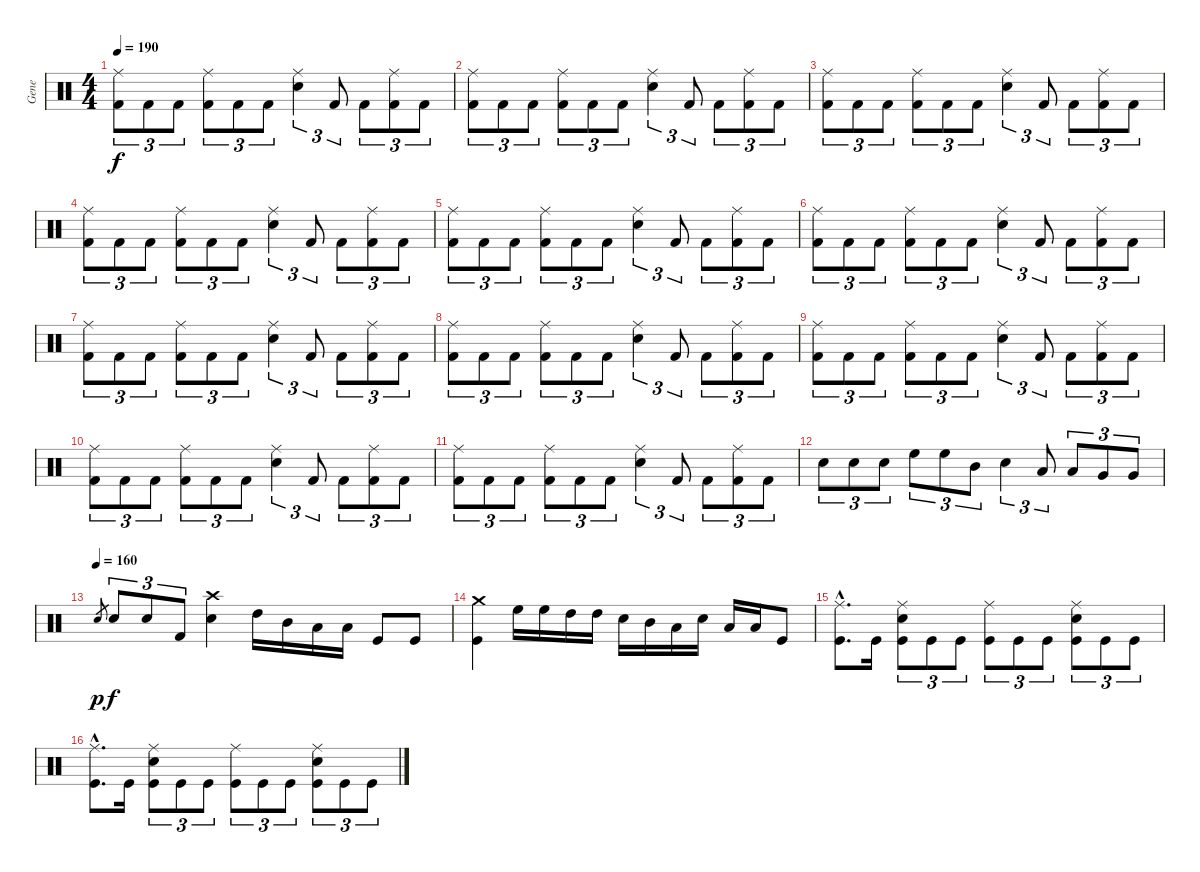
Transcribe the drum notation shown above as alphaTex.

\track ("Gene" "Gene") {instrument percussion}
\staff {score}
\articulation defaults
\ts (4 4)
\tempo 190
\clef neutral
\ks c
("Ride (middle)" "Kick (hit) 2").8{tu (3 2) dy f} "Kick (hit) 2".8{tu (3 2)} "Kick (hit) 2".8{tu (3 2)} ("Ride (middle)" "Kick (hit) 2").8{tu (3 2)} "Kick (hit) 2".8{tu (3 2)} "Kick (hit) 2".8{tu (3 2)} ("Ride (middle)" "Electric Snare (hit)").4{tu (3 2)} "Kick (hit) 2".8{tu (3 2)} "Kick (hit) 2".8{tu (3 2)} ("Ride (middle)" "Kick (hit) 2").8{tu (3 2)} "Kick (hit) 2".8{tu (3 2)} |
("Ride (middle)" "Kick (hit) 2").8{tu (3 2)} "Kick (hit) 2".8{tu (3 2)} "Kick (hit) 2".8{tu (3 2)} ("Ride (middle)" "Kick (hit) 2").8{tu (3 2)} "Kick (hit) 2".8{tu (3 2)} "Kick (hit) 2".8{tu (3 2)} ("Ride (middle)" "Electric Snare (hit)").4{tu (3 2)} "Kick (hit) 2".8{tu (3 2)} "Kick (hit) 2".8{tu (3 2)} ("Ride (middle)" "Kick (hit) 2").8{tu (3 2)} "Kick (hit) 2".8{tu (3 2)} |
("Ride (middle)" "Kick (hit) 2").8{tu (3 2)} "Kick (hit) 2".8{tu (3 2)} "Kick (hit) 2".8{tu (3 2)} ("Ride (middle)" "Kick (hit) 2").8{tu (3 2)} "Kick (hit) 2".8{tu (3 2)} "Kick (hit) 2".8{tu (3 2)} ("Ride (middle)" "Electric Snare (hit)").4{tu (3 2)} "Kick (hit) 2".8{tu (3 2)} "Kick (hit) 2".8{tu (3 2)} ("Ride (middle)" "Kick (hit) 2").8{tu (3 2)} "Kick (hit) 2".8{tu (3 2)} |
("Ride (middle)" "Kick (hit) 2").8{tu (3 2)} "Kick (hit) 2".8{tu (3 2)} "Kick (hit) 2".8{tu (3 2)} ("Ride (middle)" "Kick (hit) 2").8{tu (3 2)} "Kick (hit) 2".8{tu (3 2)} "Kick (hit) 2".8{tu (3 2)} ("Ride (middle)" "Electric Snare (hit)").4{tu (3 2)} "Kick (hit) 2".8{tu (3 2)} "Kick (hit) 2".8{tu (3 2)} ("Ride (middle)" "Kick (hit) 2").8{tu (3 2)} "Kick (hit) 2".8{tu (3 2)} |
("Ride (middle)" "Kick (hit) 2").8{tu (3 2)} "Kick (hit) 2".8{tu (3 2)} "Kick (hit) 2".8{tu (3 2)} ("Ride (middle)" "Kick (hit) 2").8{tu (3 2)} "Kick (hit) 2".8{tu (3 2)} "Kick (hit) 2".8{tu (3 2)} ("Ride (middle)" "Electric Snare (hit)").4{tu (3 2)} "Kick (hit) 2".8{tu (3 2)} "Kick (hit) 2".8{tu (3 2)} ("Ride (middle)" "Kick (hit) 2").8{tu (3 2)} "Kick (hit) 2".8{tu (3 2)} |
("Ride (middle)" "Kick (hit) 2").8{tu (3 2)} "Kick (hit) 2".8{tu (3 2)} "Kick (hit) 2".8{tu (3 2)} ("Ride (middle)" "Kick (hit) 2").8{tu (3 2)} "Kick (hit) 2".8{tu (3 2)} "Kick (hit) 2".8{tu (3 2)} ("Ride (middle)" "Electric Snare (hit)").4{tu (3 2)} "Kick (hit) 2".8{tu (3 2)} "Kick (hit) 2".8{tu (3 2)} ("Ride (middle)" "Kick (hit) 2").8{tu (3 2)} "Kick (hit) 2".8{tu (3 2)} |
("Ride (middle)" "Kick (hit) 2").8{tu (3 2)} "Kick (hit) 2".8{tu (3 2)} "Kick (hit) 2".8{tu (3 2)} ("Ride (middle)" "Kick (hit) 2").8{tu (3 2)} "Kick (hit) 2".8{tu (3 2)} "Kick (hit) 2".8{tu (3 2)} ("Ride (middle)" "Electric Snare (hit)").4{tu (3 2)} "Kick (hit) 2".8{tu (3 2)} "Kick (hit) 2".8{tu (3 2)} ("Ride (middle)" "Kick (hit) 2").8{tu (3 2)} "Kick (hit) 2".8{tu (3 2)} |
("Ride (middle)" "Kick (hit) 2").8{tu (3 2)} "Kick (hit) 2".8{tu (3 2)} "Kick (hit) 2".8{tu (3 2)} ("Ride (middle)" "Kick (hit) 2").8{tu (3 2)} "Kick (hit) 2".8{tu (3 2)} "Kick (hit) 2".8{tu (3 2)} ("Ride (middle)" "Electric Snare (hit)").4{tu (3 2)} "Kick (hit) 2".8{tu (3 2)} "Kick (hit) 2".8{tu (3 2)} ("Ride (middle)" "Kick (hit) 2").8{tu (3 2)} "Kick (hit) 2".8{tu (3 2)} |
("Ride (middle)" "Kick (hit) 2").8{tu (3 2)} "Kick (hit) 2".8{tu (3 2)} "Kick (hit) 2".8{tu (3 2)} ("Ride (middle)" "Kick (hit) 2").8{tu (3 2)} "Kick (hit) 2".8{tu (3 2)} "Kick (hit) 2".8{tu (3 2)} ("Ride (middle)" "Electric Snare (hit)").4{tu (3 2)} "Kick (hit) 2".8{tu (3 2)} "Kick (hit) 2".8{tu (3 2)} ("Ride (middle)" "Kick (hit) 2").8{tu (3 2)} "Kick (hit) 2".8{tu (3 2)} |
("Ride (middle)" "Kick (hit) 2").8{tu (3 2)} "Kick (hit) 2".8{tu (3 2)} "Kick (hit) 2".8{tu (3 2)} ("Ride (middle)" "Kick (hit) 2").8{tu (3 2)} "Kick (hit) 2".8{tu (3 2)} "Kick (hit) 2".8{tu (3 2)} ("Ride (middle)" "Electric Snare (hit)").4{tu (3 2)} "Kick (hit) 2".8{tu (3 2)} "Kick (hit) 2".8{tu (3 2)} ("Ride (middle)" "Kick (hit) 2").8{tu (3 2)} "Kick (hit) 2".8{tu (3 2)} |
("Ride (middle)" "Kick (hit) 2").8{tu (3 2)} "Kick (hit) 2".8{tu (3 2)} "Kick (hit) 2".8{tu (3 2)} ("Ride (middle)" "Kick (hit) 2").8{tu (3 2)} "Kick (hit) 2".8{tu (3 2)} "Kick (hit) 2".8{tu (3 2)} ("Ride (middle)" "Electric Snare (hit)").4{tu (3 2)} "Kick (hit) 2".8{tu (3 2)} "Kick (hit) 2".8{tu (3 2)} ("Ride (middle)" "Kick (hit) 2").8{tu (3 2)} "Kick (hit) 2".8{tu (3 2)} |
"Electric Snare (hit)".8{tu (3 2)} "Electric Snare (hit)".8{tu (3 2)} "Electric Snare (hit)".8{tu (3 2)} "High Floor Tom (hit)".8{tu (3 2)} "High Floor Tom (hit)".8{tu (3 2)} "Mid Tom (hit)".8{tu (3 2)} "Electric Snare (hit)".4{tu (3 2)} "Low Tom (hit)".8{tu (3 2)} "Low Tom (hit)".8{tu (3 2)} "Very Low Tom (hit)".8{tu (3 2)} "Very Low Tom (hit)".8{tu (3 2)} |
\tempo (160)
"Snare (hit) 2".8{gr dy p} "Snare (hit) 2".8{tu (3 2) dy f} "Snare (hit) 2".8{tu (3 2)} "Kick (hit) 2".8{tu (3 2)} ("Crash high (hit)" "Snare (hit) 2").4 "High Tom (hit)".16 "Mid Tom (hit)".16 "Low Tom (hit)".16 "Low Floor Tom (hit)".16 "Kick (hit)".8 "Kick (hit)".8 |
("Crash medium (hit)" "Kick (hit)").4 "High Floor Tom (hit)".16 "High Floor Tom (hit)".16 "High Tom (hit)".16 "High Tom (hit)".16 "Snare (hit) 2".16 "Mid Tom (hit)".16 "Low Tom (hit)".16 "Snare (hit) 2".16 "Low Floor Tom (hit)".16 "Low Floor Tom (hit)".16 "Kick (hit)".8 |
("Kick (hit)"{hac} "Ride (middle)"{hac}).8{d} "Kick (hit)".16 ("Kick (hit)" "Snare (hit) 2" "Ride (middle)").8{tu (3 2)} "Kick (hit)".8{tu (3 2)} "Kick (hit)".8{tu (3 2)} ("Kick (hit)" "Ride (middle)").8{tu (3 2)} "Kick (hit)".8{tu (3 2)} "Kick (hit)".8{tu (3 2)} ("Kick (hit)" "Snare (hit) 2" "Ride (middle)").8{tu (3 2)} "Kick (hit)".8{tu (3 2)} "Kick (hit)".8{tu (3 2)} |
("Kick (hit)"{hac} "Ride (middle)"{hac}).8{d} "Kick (hit)".16 ("Kick (hit)" "Snare (hit) 2" "Ride (middle)").8{tu (3 2)} "Kick (hit)".8{tu (3 2)} "Kick (hit)".8{tu (3 2)} ("Kick (hit)" "Ride (middle)").8{tu (3 2)} "Kick (hit)".8{tu (3 2)} "Kick (hit)".8{tu (3 2)} ("Kick (hit)" "Snare (hit) 2" "Ride (middle)").8{tu (3 2)} "Kick (hit)".8{tu (3 2)} "Kick (hit)".8{tu (3 2)}
